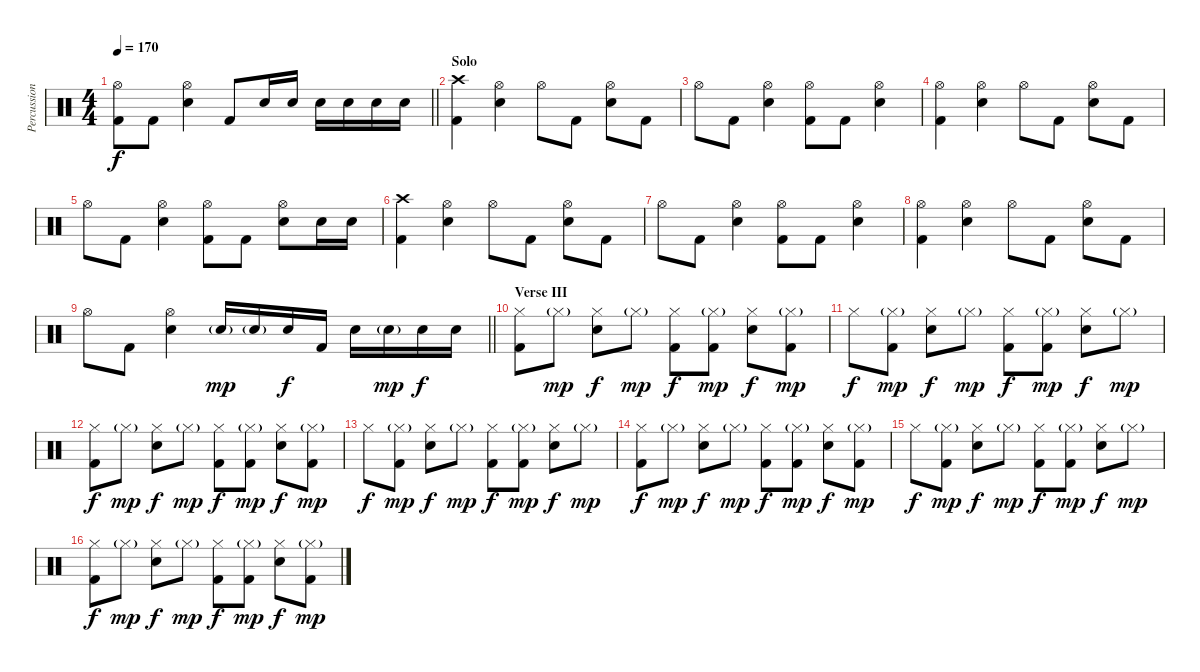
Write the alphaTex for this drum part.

\track ("Percussion" "Percussion") {instrument percussion}
\staff {score}
\articulation defaults
\ts (4 4)
\tempo 170
\clef neutral
\barLineRight lightlight
\ks c
("Hi-Hat (open)" "Kick (hit) 2").8{dy f} "Kick (hit) 2".8 ("Hi-Hat (open)" "Electric Snare (hit)").4 "Kick (hit) 2".8 "Electric Snare (hit)".16 "Electric Snare (hit)".16 "Electric Snare (hit)".16 "Electric Snare (hit)".16 "Electric Snare (hit)".16 "Electric Snare (hit)".16 |
\section ("" "Solo")
("Crash high (hit)" "Kick (hit) 2").4{volume 13} ("Hi-Hat (open)" "Electric Snare (hit)").4 "Hi-Hat (open)".8 "Kick (hit) 2".8 ("Hi-Hat (open)" "Electric Snare (hit)").8 "Kick (hit) 2".8 |
"Hi-Hat (open)".8 "Kick (hit) 2".8 ("Hi-Hat (open)" "Electric Snare (hit)").4 ("Hi-Hat (open)" "Kick (hit) 2").8 "Kick (hit) 2".8 ("Hi-Hat (open)" "Electric Snare (hit)").4 |
("Hi-Hat (open)" "Kick (hit) 2").4 ("Hi-Hat (open)" "Electric Snare (hit)").4 "Hi-Hat (open)".8 "Kick (hit) 2".8 ("Hi-Hat (open)" "Electric Snare (hit)").8 "Kick (hit) 2".8 |
"Hi-Hat (open)".8 "Kick (hit) 2".8 ("Hi-Hat (open)" "Electric Snare (hit)").4 ("Hi-Hat (open)" "Kick (hit) 2").8 "Kick (hit) 2".8 ("Hi-Hat (open)" "Electric Snare (hit)").8 "Electric Snare (hit)".16 "Electric Snare (hit)".16 |
("Crash high (hit)" "Kick (hit) 2").4 ("Hi-Hat (open)" "Electric Snare (hit)").4 "Hi-Hat (open)".8 "Kick (hit) 2".8 ("Hi-Hat (open)" "Electric Snare (hit)").8 "Kick (hit) 2".8 |
"Hi-Hat (open)".8 "Kick (hit) 2".8 ("Hi-Hat (open)" "Electric Snare (hit)").4 ("Hi-Hat (open)" "Kick (hit) 2").8 "Kick (hit) 2".8 ("Hi-Hat (open)" "Electric Snare (hit)").4 |
("Hi-Hat (open)" "Kick (hit) 2").4 ("Hi-Hat (open)" "Electric Snare (hit)").4 "Hi-Hat (open)".8 "Kick (hit) 2".8 ("Hi-Hat (open)" "Electric Snare (hit)").8 "Kick (hit) 2".8 |
\barLineRight lightlight "Hi-Hat (open)".8 "Kick (hit) 2".8
("Hi-Hat (open)" "Electric Snare (hit)").4 "Electric Snare (hit)"{g}.16{dy mp} "Electric Snare (hit)"{g}.16 "Electric Snare (hit)".16{dy f} "Kick (hit) 2".16 "Electric Snare (hit)".16 "Electric Snare (hit)"{g}.16{dy mp} "Electric Snare (hit)".16{dy f} "Electric Snare (hit)".16 |
\section ("" "Verse III")
("Hi-Hat (closed)" "Kick (hit) 2").8 "Hi-Hat (closed)"{g}.8{dy mp} ("Hi-Hat (closed)" "Electric Snare (hit)").8{dy f} "Hi-Hat (closed)"{g}.8{dy mp} ("Hi-Hat (closed)" "Kick (hit) 2").8{dy f} ("Hi-Hat (closed)"{g} "Kick (hit) 2").8{dy mp} ("Hi-Hat (closed)" "Electric Snare (hit)").8{dy f} ("Hi-Hat (closed)"{g} "Kick (hit) 2").8{dy mp} |
"Hi-Hat (closed)".8{dy f} ("Hi-Hat (closed)"{g} "Kick (hit) 2").8{dy mp} ("Hi-Hat (closed)" "Electric Snare (hit)").8{dy f} "Hi-Hat (closed)"{g}.8{dy mp} ("Hi-Hat (closed)" "Kick (hit) 2").8{dy f} ("Hi-Hat (closed)"{g} "Kick (hit) 2").8{dy mp} ("Hi-Hat (closed)" "Electric Snare (hit)").8{dy f} "Hi-Hat (closed)"{g}.8{dy mp} |
("Hi-Hat (closed)" "Kick (hit) 2").8{dy f} "Hi-Hat (closed)"{g}.8{dy mp} ("Hi-Hat (closed)" "Electric Snare (hit)").8{dy f} "Hi-Hat (closed)"{g}.8{dy mp} ("Hi-Hat (closed)" "Kick (hit) 2").8{dy f} ("Hi-Hat (closed)"{g} "Kick (hit) 2").8{dy mp} ("Hi-Hat (closed)" "Electric Snare (hit)").8{dy f} ("Hi-Hat (closed)"{g} "Kick (hit) 2").8{dy mp} |
"Hi-Hat (closed)".8{dy f} ("Hi-Hat (closed)"{g} "Kick (hit) 2").8{dy mp} ("Hi-Hat (closed)" "Electric Snare (hit)").8{dy f} "Hi-Hat (closed)"{g}.8{dy mp} ("Hi-Hat (closed)" "Kick (hit) 2").8{dy f} ("Hi-Hat (closed)"{g} "Kick (hit) 2").8{dy mp} ("Hi-Hat (closed)" "Electric Snare (hit)").8{dy f} "Hi-Hat (closed)"{g}.8{dy mp} |
("Hi-Hat (closed)" "Kick (hit) 2").8{dy f} "Hi-Hat (closed)"{g}.8{dy mp} ("Hi-Hat (closed)" "Electric Snare (hit)").8{dy f} "Hi-Hat (closed)"{g}.8{dy mp} ("Hi-Hat (closed)" "Kick (hit) 2").8{dy f} ("Hi-Hat (closed)"{g} "Kick (hit) 2").8{dy mp} ("Hi-Hat (closed)" "Electric Snare (hit)").8{dy f} ("Hi-Hat (closed)"{g} "Kick (hit) 2").8{dy mp} |
"Hi-Hat (closed)".8{dy f} ("Hi-Hat (closed)"{g} "Kick (hit) 2").8{dy mp} ("Hi-Hat (closed)" "Electric Snare (hit)").8{dy f} "Hi-Hat (closed)"{g}.8{dy mp} ("Hi-Hat (closed)" "Kick (hit) 2").8{dy f} ("Hi-Hat (closed)"{g} "Kick (hit) 2").8{dy mp} ("Hi-Hat (closed)" "Electric Snare (hit)").8{dy f} "Hi-Hat (closed)"{g}.8{dy mp} |
("Hi-Hat (closed)" "Kick (hit) 2").8{dy f} "Hi-Hat (closed)"{g}.8{dy mp} ("Hi-Hat (closed)" "Electric Snare (hit)").8{dy f} "Hi-Hat (closed)"{g}.8{dy mp} ("Hi-Hat (closed)" "Kick (hit) 2").8{dy f} ("Hi-Hat (closed)"{g} "Kick (hit) 2").8{dy mp} ("Hi-Hat (closed)" "Electric Snare (hit)").8{dy f} ("Hi-Hat (closed)"{g} "Kick (hit) 2").8{dy mp}
